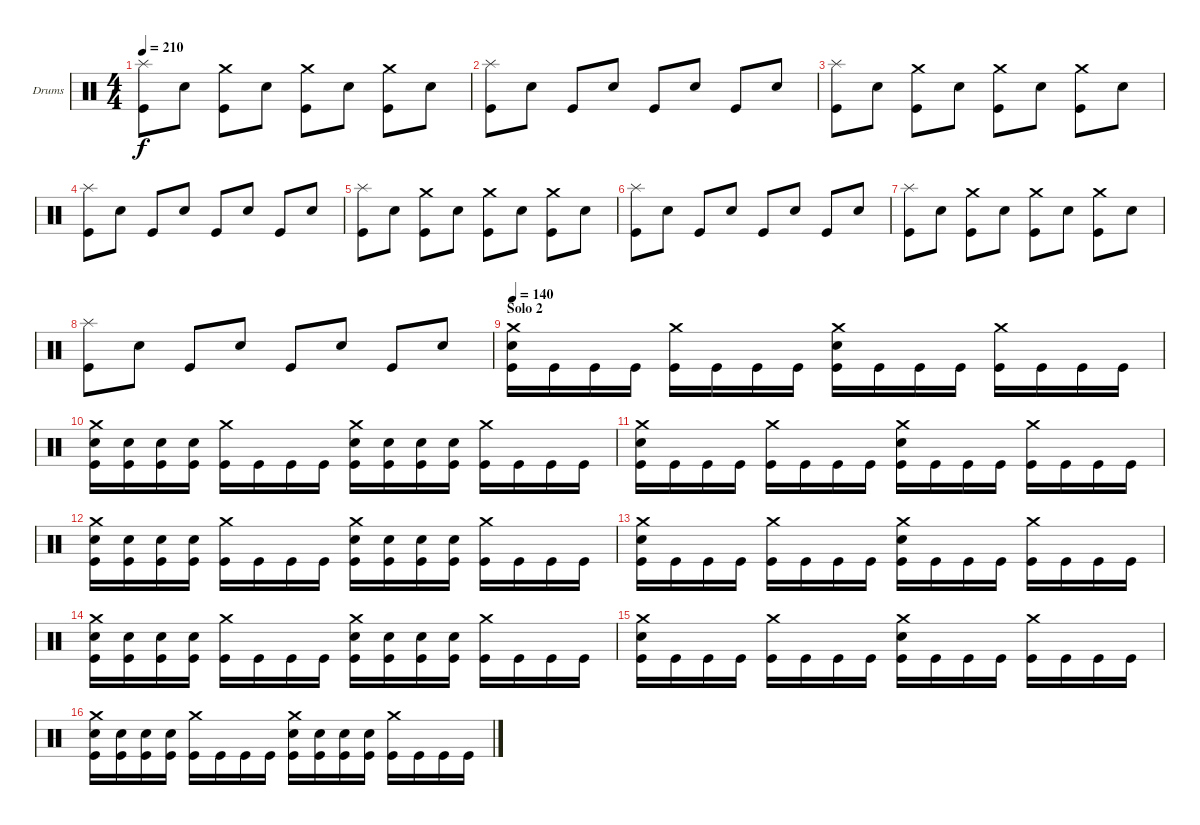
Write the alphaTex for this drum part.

\defaultSystemsLayout 4
\bracketExtendMode groupsimilarinstruments
\firstSystemTrackNameOrientation horizontal
\otherSystemsTrackNameOrientation horizontal
\track ("Ventor" "Drums") {instrument percussion}
\staff {score}
\articulation defaults
\ts (4 4)
\tempo 210
\clef neutral
\scale
0.5
\ks c
("Kick (hit)" "Splash (hit)").8{dy f} "Snare (hit) 2".8 ("Kick (hit)" "Crash medium (hit)").8 "Snare (hit) 2".8 ("Kick (hit)" "Crash medium (hit)").8 "Snare (hit) 2".8 ("Kick (hit)" "Crash medium (hit)").8 "Snare (hit) 2".8 |
\scale
0.5 ("Kick (hit)" "Splash (hit)").8 "Snare (hit) 2".8 "Kick (hit)".8 "Snare (hit) 2".8 "Kick (hit)".8 "Snare (hit) 2".8 "Kick (hit)".8 "Snare (hit) 2".8 |
\scale
0.5 ("Kick (hit)" "Splash (hit)").8 "Snare (hit) 2".8 ("Kick (hit)" "Crash medium (hit)").8 "Snare (hit) 2".8 ("Kick (hit)" "Crash medium (hit)").8 "Snare (hit) 2".8 ("Kick (hit)" "Crash medium (hit)").8 "Snare (hit) 2".8 |
\scale
0.5 ("Kick (hit)" "Splash (hit)").8 "Snare (hit) 2".8 "Kick (hit)".8 "Snare (hit) 2".8 "Kick (hit)".8 "Snare (hit) 2".8 "Kick (hit)".8 "Snare (hit) 2".8 |
\scale
0.5 ("Kick (hit)" "Splash (hit)").8 "Snare (hit) 2".8 ("Kick (hit)" "Crash medium (hit)").8 "Snare (hit) 2".8 ("Kick (hit)" "Crash medium (hit)").8 "Snare (hit) 2".8 ("Kick (hit)" "Crash medium (hit)").8 "Snare (hit) 2".8 |
\scale
0.5 ("Kick (hit)" "Splash (hit)").8 "Snare (hit) 2".8 "Kick (hit)".8 "Snare (hit) 2".8 "Kick (hit)".8 "Snare (hit) 2".8 "Kick (hit)".8 "Snare (hit) 2".8 |
\scale
0.5 ("Kick (hit)" "Splash (hit)").8 "Snare (hit) 2".8 ("Kick (hit)" "Crash medium (hit)").8 "Snare (hit) 2".8 ("Kick (hit)" "Crash medium (hit)").8 "Snare (hit) 2".8 ("Kick (hit)" "Crash medium (hit)").8 "Snare (hit) 2".8 |
\scale
0.5 ("Kick (hit)" "Splash (hit)").8 "Snare (hit) 2".8 "Kick (hit)".8 "Snare (hit) 2".8 "Kick (hit)".8 "Snare (hit) 2".8 "Kick (hit)".8 "Snare (hit) 2".8 |
\section ("" "Solo 2")
\tempo 140
\scale
0.5 ("Kick (hit)" "Snare (hit) 2" "Crash medium (hit)").16 "Kick (hit)".16 "Kick (hit)".16 "Kick (hit)".16 ("Kick (hit)" "Crash medium (hit)").16 "Kick (hit)".16 "Kick (hit)".16 "Kick (hit)".16 ("Kick (hit)" "Snare (hit) 2" "Crash medium (hit)").16 "Kick (hit)".16 "Kick (hit)".16 "Kick (hit)".16 ("Kick (hit)" "Crash medium (hit)").16 "Kick (hit)".16 "Kick (hit)".16 "Kick (hit)".16 |
\scale
0.5 ("Kick (hit)" "Snare (hit) 2" "Crash medium (hit)").16 ("Kick (hit)" "Snare (hit) 2").16 ("Kick (hit)" "Snare (hit) 2").16 ("Kick (hit)" "Snare (hit) 2").16 ("Kick (hit)" "Crash medium (hit)").16 "Kick (hit)".16 "Kick (hit)".16 "Kick (hit)".16 ("Kick (hit)" "Snare (hit) 2" "Crash medium (hit)").16 ("Kick (hit)" "Snare (hit) 2").16 ("Kick (hit)" "Snare (hit) 2").16 ("Kick (hit)" "Snare (hit) 2").16 ("Kick (hit)" "Crash medium (hit)").16 "Kick (hit)".16 "Kick (hit)".16 "Kick (hit)".16 |
\scale
0.5 ("Kick (hit)" "Snare (hit) 2" "Crash medium (hit)").16 "Kick (hit)".16 "Kick (hit)".16 "Kick (hit)".16 ("Kick (hit)" "Crash medium (hit)").16 "Kick (hit)".16 "Kick (hit)".16 "Kick (hit)".16 ("Kick (hit)" "Snare (hit) 2" "Crash medium (hit)").16 "Kick (hit)".16 "Kick (hit)".16 "Kick (hit)".16 ("Kick (hit)" "Crash medium (hit)").16 "Kick (hit)".16 "Kick (hit)".16 "Kick (hit)".16 |
\scale
0.5 ("Kick (hit)" "Snare (hit) 2" "Crash medium (hit)").16 ("Kick (hit)" "Snare (hit) 2").16 ("Kick (hit)" "Snare (hit) 2").16 ("Kick (hit)" "Snare (hit) 2").16 ("Kick (hit)" "Crash medium (hit)").16 "Kick (hit)".16 "Kick (hit)".16 "Kick (hit)".16 ("Kick (hit)" "Snare (hit) 2" "Crash medium (hit)").16 ("Kick (hit)" "Snare (hit) 2").16 ("Kick (hit)" "Snare (hit) 2").16 ("Kick (hit)" "Snare (hit) 2").16 ("Kick (hit)" "Crash medium (hit)").16 "Kick (hit)".16 "Kick (hit)".16 "Kick (hit)".16 |
\scale
0.5 ("Kick (hit)" "Snare (hit) 2" "Crash medium (hit)").16 "Kick (hit)".16 "Kick (hit)".16 "Kick (hit)".16 ("Kick (hit)" "Crash medium (hit)").16 "Kick (hit)".16 "Kick (hit)".16 "Kick (hit)".16 ("Kick (hit)" "Snare (hit) 2" "Crash medium (hit)").16 "Kick (hit)".16 "Kick (hit)".16 "Kick (hit)".16 ("Kick (hit)" "Crash medium (hit)").16 "Kick (hit)".16 "Kick (hit)".16 "Kick (hit)".16 |
\scale
0.5 ("Kick (hit)" "Snare (hit) 2" "Crash medium (hit)").16 ("Kick (hit)" "Snare (hit) 2").16 ("Kick (hit)" "Snare (hit) 2").16 ("Kick (hit)" "Snare (hit) 2").16 ("Kick (hit)" "Crash medium (hit)").16 "Kick (hit)".16 "Kick (hit)".16 "Kick (hit)".16 ("Kick (hit)" "Snare (hit) 2" "Crash medium (hit)").16 ("Kick (hit)" "Snare (hit) 2").16 ("Kick (hit)" "Snare (hit) 2").16 ("Kick (hit)" "Snare (hit) 2").16 ("Kick (hit)" "Crash medium (hit)").16 "Kick (hit)".16 "Kick (hit)".16 "Kick (hit)".16 |
\scale
0.5 ("Kick (hit)" "Snare (hit) 2" "Crash medium (hit)").16 "Kick (hit)".16 "Kick (hit)".16 "Kick (hit)".16 ("Kick (hit)" "Crash medium (hit)").16 "Kick (hit)".16 "Kick (hit)".16 "Kick (hit)".16 ("Kick (hit)" "Snare (hit) 2" "Crash medium (hit)").16 "Kick (hit)".16 "Kick (hit)".16 "Kick (hit)".16 ("Kick (hit)" "Crash medium (hit)").16 "Kick (hit)".16 "Kick (hit)".16 "Kick (hit)".16 |
\scale
0.5 ("Kick (hit)" "Snare (hit) 2" "Crash medium (hit)").16 ("Kick (hit)" "Snare (hit) 2").16 ("Kick (hit)" "Snare (hit) 2").16 ("Kick (hit)" "Snare (hit) 2").16 ("Kick (hit)" "Crash medium (hit)").16 "Kick (hit)".16 "Kick (hit)".16 "Kick (hit)".16 ("Kick (hit)" "Snare (hit) 2" "Crash medium (hit)").16 ("Kick (hit)" "Snare (hit) 2").16 ("Kick (hit)" "Snare (hit) 2").16 ("Kick (hit)" "Snare (hit) 2").16 ("Kick (hit)" "Crash medium (hit)").16 "Kick (hit)".16 "Kick (hit)".16 "Kick (hit)".16
